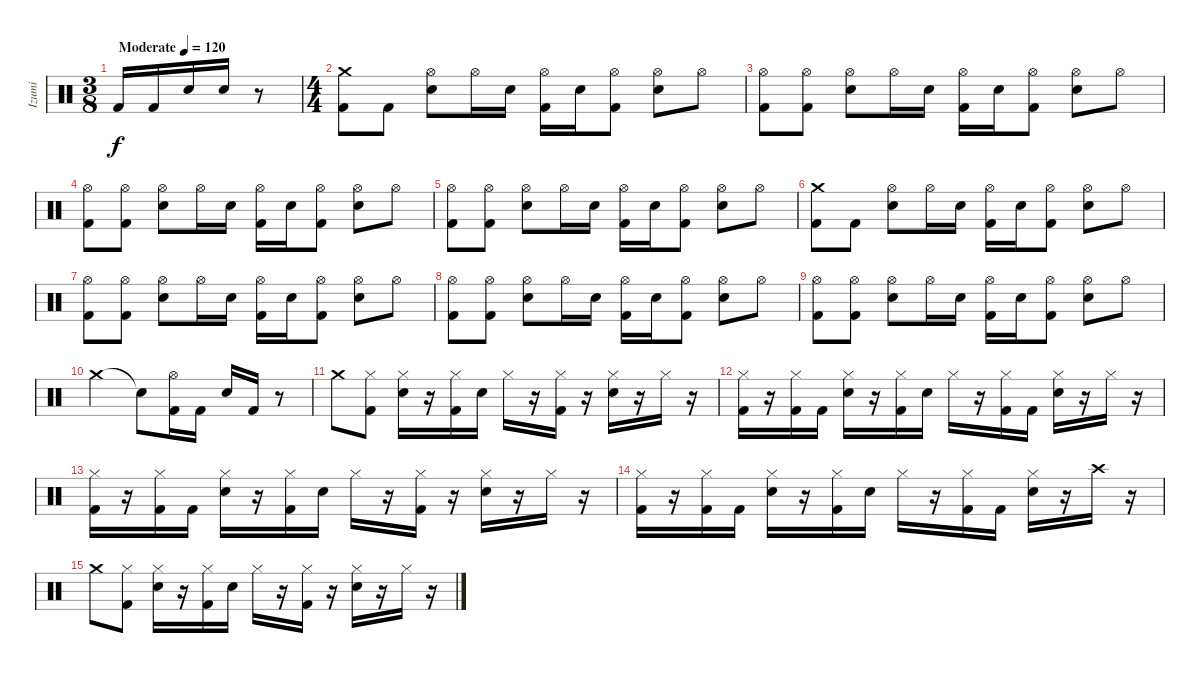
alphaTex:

\track ("Izumi" "Izumi") {instrument percussion}
\staff {score}
\articulation defaults
\ts (3 8)
\tempo (120 "Moderate")
\clef neutral
\ks c "Kick (hit) 2".16{dy f} "Kick (hit) 2".16 "Electric Snare (hit)".16 "Electric Snare (hit)".16
r.8 |
\ts (4 4)
("Kick (hit) 2" "Crash medium (hit)").8 "Kick (hit) 2".8 ("Electric Snare (hit)" "Hi-Hat (open)").8 "Hi-Hat (open)".16 "Electric Snare (hit)".16 ("Kick (hit) 2" "Hi-Hat (open)").16 "Electric Snare (hit)".16 ("Kick (hit) 2" "Hi-Hat (open)").8 ("Electric Snare (hit)" "Hi-Hat (open)").8 "Hi-Hat (open)".8 |
("Kick (hit) 2" "Hi-Hat (open)").8 ("Kick (hit) 2" "Hi-Hat (open)").8 ("Electric Snare (hit)" "Hi-Hat (open)").8 "Hi-Hat (open)".16 "Electric Snare (hit)".16 ("Kick (hit) 2" "Hi-Hat (open)").16 "Electric Snare (hit)".16 ("Kick (hit) 2" "Hi-Hat (open)").8 ("Electric Snare (hit)" "Hi-Hat (open)").8 "Hi-Hat (open)".8 |
("Kick (hit) 2" "Hi-Hat (open)").8 ("Kick (hit) 2" "Hi-Hat (open)").8 ("Electric Snare (hit)" "Hi-Hat (open)").8 "Hi-Hat (open)".16 "Electric Snare (hit)".16 ("Kick (hit) 2" "Hi-Hat (open)").16 "Electric Snare (hit)".16 ("Kick (hit) 2" "Hi-Hat (open)").8 ("Electric Snare (hit)" "Hi-Hat (open)").8 "Hi-Hat (open)".8 |
("Kick (hit) 2" "Hi-Hat (open)").8 ("Kick (hit) 2" "Hi-Hat (open)").8 ("Electric Snare (hit)" "Hi-Hat (open)").8 "Hi-Hat (open)".16 "Electric Snare (hit)".16 ("Kick (hit) 2" "Hi-Hat (open)").16 "Electric Snare (hit)".16 ("Kick (hit) 2" "Hi-Hat (open)").8 ("Electric Snare (hit)" "Hi-Hat (open)").8 "Hi-Hat (open)".8 |
("Kick (hit) 2" "Crash medium (hit)").8 "Kick (hit) 2".8 ("Electric Snare (hit)" "Hi-Hat (open)").8 "Hi-Hat (open)".16 "Electric Snare (hit)".16 ("Kick (hit) 2" "Hi-Hat (open)").16 "Electric Snare (hit)".16 ("Kick (hit) 2" "Hi-Hat (open)").8 ("Electric Snare (hit)" "Hi-Hat (open)").8 "Hi-Hat (open)".8 |
("Kick (hit) 2" "Hi-Hat (open)").8 ("Kick (hit) 2" "Hi-Hat (open)").8 ("Electric Snare (hit)" "Hi-Hat (open)").8 "Hi-Hat (open)".16 "Electric Snare (hit)".16 ("Kick (hit) 2" "Hi-Hat (open)").16 "Electric Snare (hit)".16 ("Kick (hit) 2" "Hi-Hat (open)").8 ("Electric Snare (hit)" "Hi-Hat (open)").8 "Hi-Hat (open)".8 |
("Kick (hit) 2" "Hi-Hat (open)").8 ("Kick (hit) 2" "Hi-Hat (open)").8 ("Electric Snare (hit)" "Hi-Hat (open)").8 "Hi-Hat (open)".16 "Electric Snare (hit)".16 ("Kick (hit) 2" "Hi-Hat (open)").16 "Electric Snare (hit)".16 ("Kick (hit) 2" "Hi-Hat (open)").8 ("Electric Snare (hit)" "Hi-Hat (open)").8 "Hi-Hat (open)".8 |
("Kick (hit) 2" "Hi-Hat (open)").8 ("Kick (hit) 2" "Hi-Hat (open)").8 ("Electric Snare (hit)" "Hi-Hat (open)").8 "Hi-Hat (open)".16 "Electric Snare (hit)".16 ("Kick (hit) 2" "Hi-Hat (open)").16 "Electric Snare (hit)".16 ("Kick (hit) 2" "Hi-Hat (open)").8 ("Electric Snare (hit)" "Hi-Hat (open)").8 "Hi-Hat (open)".8 |
"Crash medium (hit)".2 "Snare (hit)"{t}.8 ("Kick (hit) 2" "Hi-Hat (open)").16 "Kick (hit) 2".16 "Electric Snare (hit)".16 "Kick (hit) 2".16 r.8 |
"Crash medium (hit)".8 ("Kick (hit) 2" "Hi-Hat (closed)").8 ("Electric Snare (hit)" "Hi-Hat (closed)").16 r.16 ("Kick (hit) 2" "Hi-Hat (closed)").16 "Electric Snare (hit)".16 "Hi-Hat (closed)".16 r.16 ("Kick (hit) 2" "Hi-Hat (closed)").16 r.16 ("Electric Snare (hit)" "Hi-Hat (closed)").16 r.16 "Hi-Hat (closed)".16 r.16 |
("Kick (hit) 2" "Hi-Hat (closed)").16 r.16 ("Kick (hit) 2" "Hi-Hat (closed)").16 "Kick (hit) 2".16 ("Electric Snare (hit)" "Hi-Hat (closed)").16 r.16 ("Kick (hit) 2" "Hi-Hat (closed)").16 "Electric Snare (hit)".16 "Hi-Hat (closed)".16 r.16 ("Kick (hit) 2" "Hi-Hat (closed)").16 "Kick (hit) 2".16 ("Electric Snare (hit)" "Hi-Hat (closed)").16 r.16 "Hi-Hat (closed)".16 r.16 |
("Kick (hit) 2" "Hi-Hat (closed)").16 r.16 ("Kick (hit) 2" "Hi-Hat (closed)").16 "Kick (hit) 2".16 ("Electric Snare (hit)" "Hi-Hat (closed)").16 r.16 ("Kick (hit) 2" "Hi-Hat (closed)").16 "Electric Snare (hit)".16 "Hi-Hat (closed)".16 r.16 ("Kick (hit) 2" "Hi-Hat (closed)").16 r.16 ("Electric Snare (hit)" "Hi-Hat (closed)").16 r.16 "Hi-Hat (closed)".16 r.16 |
("Kick (hit) 2" "Hi-Hat (closed)").16 r.16 ("Kick (hit) 2" "Hi-Hat (closed)").16 "Kick (hit) 2".16 ("Electric Snare (hit)" "Hi-Hat (closed)").16 r.16 ("Kick (hit) 2" "Hi-Hat (closed)").16 "Electric Snare (hit)".16 "Hi-Hat (closed)".16 r.16 ("Kick (hit) 2" "Hi-Hat (closed)").16 "Kick (hit) 2".16 ("Electric Snare (hit)" "Hi-Hat (closed)").16 r.16 "Crash high (hit)".16 r.16 |
"Crash medium (hit)".8 ("Kick (hit) 2" "Hi-Hat (closed)").8 ("Electric Snare (hit)" "Hi-Hat (closed)").16 r.16 ("Kick (hit) 2" "Hi-Hat (closed)").16 "Electric Snare (hit)".16 "Hi-Hat (closed)".16 r.16 ("Kick (hit) 2" "Hi-Hat (closed)").16 r.16 ("Electric Snare (hit)" "Hi-Hat (closed)").16 r.16 "Hi-Hat (closed)".16 r.16
